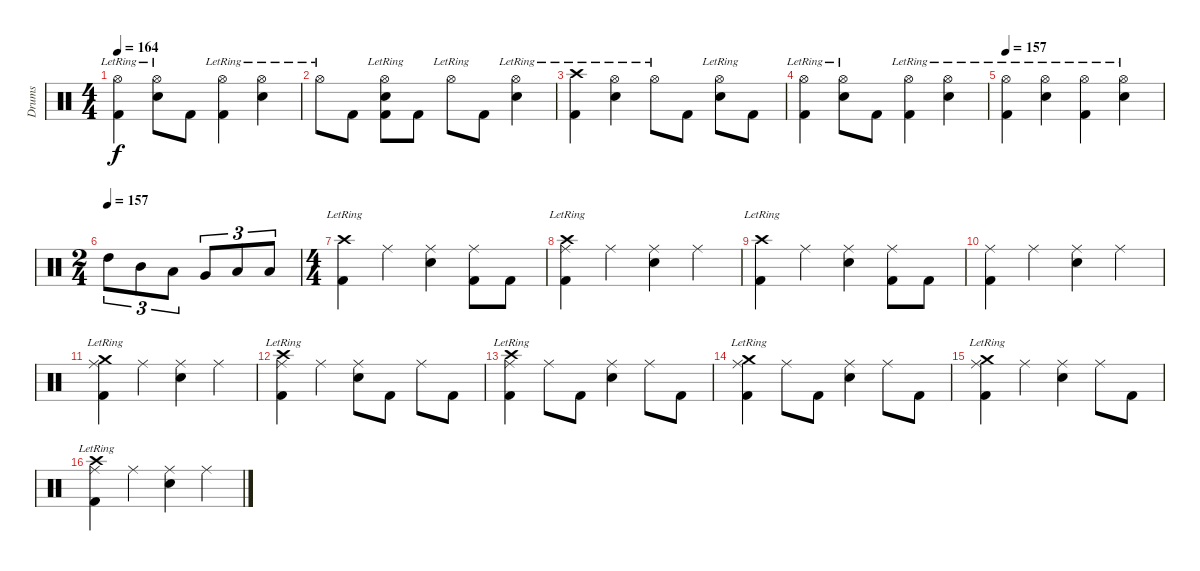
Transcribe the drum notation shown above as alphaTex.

\track ("Drums" "Drums") {instrument percussion}
\staff {score}
\articulation defaults
\ts (4 4)
\tempo 164
\clef neutral
\ks c
("Hi-Hat (open)"{lr} "Kick (hit) 2").4{dy f} ("Hi-Hat (open)"{lr} "Snare (hit) 2").8 "Kick (hit) 2".8 ("Hi-Hat (open)"{lr} "Kick (hit) 2").4 ("Hi-Hat (open)"{lr} "Snare (hit) 2").4 |
"Hi-Hat (open)"{lr}.8 "Kick (hit) 2".8 ("Hi-Hat (open)"{lr} "Snare (hit) 2" "Kick (hit) 2").8 "Kick (hit) 2".8 "Hi-Hat (open)"{lr}.8 "Kick (hit) 2".8 ("Hi-Hat (open)"{lr} "Snare (hit) 2").4 |
("Crash high (hit)"{lr} "Kick (hit) 2").4 ("Hi-Hat (open)"{lr} "Snare (hit) 2").4 "Hi-Hat (open)"{lr}.8 "Kick (hit) 2".8 ("Hi-Hat (open)"{lr} "Snare (hit) 2").8 "Kick (hit) 2".8 |
("Hi-Hat (open)"{lr} "Kick (hit) 2").4 ("Hi-Hat (open)"{lr} "Snare (hit) 2").8 "Kick (hit) 2".8 ("Hi-Hat (open)"{lr} "Kick (hit) 2").4 ("Hi-Hat (open)"{lr} "Snare (hit) 2").4 |
\tempo 157
("Hi-Hat (open)"{lr} "Kick (hit) 2").4 ("Hi-Hat (open)"{lr} "Snare (hit) 2").4 ("Hi-Hat (open)"{lr} "Kick (hit) 2").4 ("Hi-Hat (open)"{lr} "Snare (hit) 2").4 |
\ts (2 4)
\tempo (157)
"High Tom (hit)".8{tu (3 2)} "Mid Tom (hit)".8{tu (3 2)} "Low Tom (hit)".8{tu (3 2)} "Very Low Tom (hit)".8{tu (3 2)} "Low Floor Tom (hit)".8{tu (3 2)} "Low Floor Tom (hit)".8{tu (3 2)} |
\ts (4 4)
("Crash high (hit)"{lr} "Kick (hit) 2").4 "Ride (middle)".4 ("Ride (middle)" "Snare (hit) 2").4 ("Ride (middle)" "Kick (hit) 2").8 "Kick (hit) 2".8 |
("Crash high (hit)"{lr} "Ride (middle)" "Kick (hit) 2").4 "Ride (middle)".4 ("Ride (middle)" "Snare (hit) 2").4 "Ride (middle)".4 |
("Crash high (hit)"{lr} "Kick (hit) 2").4 "Ride (middle)".4 ("Ride (middle)" "Snare (hit) 2").4 ("Ride (middle)" "Kick (hit) 2").8 "Kick (hit) 2".8 |
("Ride (middle)" "Kick (hit) 2").4 "Ride (middle)".4 ("Ride (middle)" "Snare (hit) 2").4 "Ride (middle)".4 |
("Crash medium (hit)"{lr} "Ride (middle)" "Kick (hit) 2").4 "Ride (middle)".4 ("Ride (middle)" "Snare (hit) 2").4 "Ride (middle)".4 |
("Crash high (hit)"{lr} "Ride (middle)" "Kick (hit) 2").4 "Ride (middle)".4 ("Ride (middle)" "Snare (hit) 2").8 "Kick (hit) 2".8 "Ride (middle)".8 "Kick (hit) 2".8 |
("Crash high (hit)"{lr} "Ride (middle)" "Kick (hit) 2").4 "Ride (middle)".8 "Kick (hit) 2".8 ("Ride (middle)" "Snare (hit) 2").4 "Ride (middle)".8 "Kick (hit) 2".8 |
("Crash medium (hit)"{lr} "Ride (middle)" "Kick (hit) 2").4 "Ride (middle)".8 "Kick (hit) 2".8 ("Ride (middle)" "Snare (hit) 2").4 "Ride (middle)".8 "Kick (hit) 2".8 |
("Crash medium (hit)"{lr} "Ride (middle)" "Kick (hit) 2").4 "Ride (middle)".4 ("Ride (middle)" "Snare (hit) 2").4 "Ride (middle)".8 "Kick (hit) 2".8 |
("Crash high (hit)"{lr} "Ride (middle)" "Kick (hit) 2").4 "Ride (middle)".4 ("Ride (middle)" "Snare (hit) 2").4 "Ride (middle)".4
